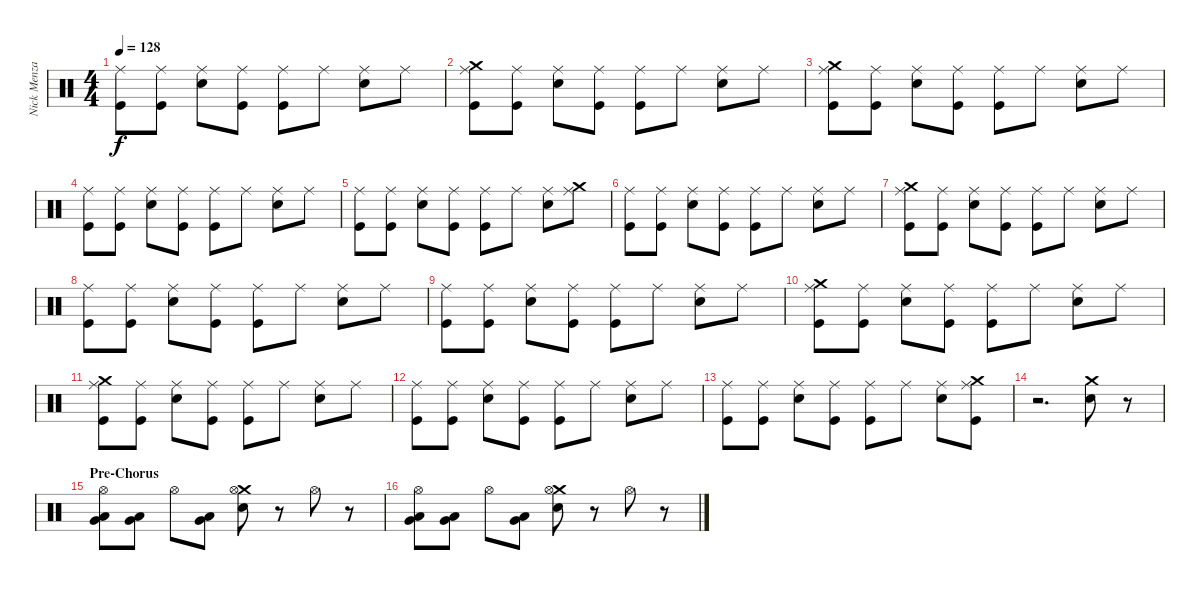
\track ("Nick Menza" "Nick Menza") {instrument percussion}
\staff {score}
\articulation defaults
\ts (4 4)
\tempo 128
\clef neutral
\ks c
("Ride (middle)" "Kick (hit)").8{dy f} ("Ride (middle)" "Kick (hit)").8 ("Ride (middle)" "Electric Snare (hit)").8 ("Ride (middle)" "Kick (hit)").8 ("Kick (hit)" "Ride (middle)").8 "Ride (middle)".8 ("Ride (middle)" "Electric Snare (hit)").8 "Ride (middle)".8 |
("Crash medium (hit)" "Ride (middle)" "Kick (hit)").8 ("Ride (middle)" "Kick (hit)").8 ("Ride (middle)" "Electric Snare (hit)").8 ("Ride (middle)" "Kick (hit)").8 ("Kick (hit)" "Ride (middle)").8 "Ride (middle)".8 ("Ride (middle)" "Electric Snare (hit)").8 "Ride (middle)".8 |
("Crash medium (hit)" "Ride (middle)" "Kick (hit)").8 ("Ride (middle)" "Kick (hit)").8 ("Ride (middle)" "Electric Snare (hit)").8 ("Ride (middle)" "Kick (hit)").8 ("Kick (hit)" "Ride (middle)").8 "Ride (middle)".8 ("Ride (middle)" "Electric Snare (hit)").8 "Ride (middle)".8 |
("Ride (middle)" "Kick (hit)").8 ("Ride (middle)" "Kick (hit)").8 ("Ride (middle)" "Electric Snare (hit)").8 ("Ride (middle)" "Kick (hit)").8 ("Kick (hit)" "Ride (middle)").8 "Ride (middle)".8 ("Ride (middle)" "Electric Snare (hit)").8 "Ride (middle)".8 |
("Ride (middle)" "Kick (hit)").8 ("Ride (middle)" "Kick (hit)").8 ("Ride (middle)" "Electric Snare (hit)").8 ("Ride (middle)" "Kick (hit)").8 ("Kick (hit)" "Ride (middle)").8 "Ride (middle)".8 ("Ride (middle)" "Electric Snare (hit)").8 ("Crash medium (hit)" "Ride (middle)").8 |
("Ride (middle)" "Kick (hit)").8 ("Ride (middle)" "Kick (hit)").8 ("Ride (middle)" "Electric Snare (hit)").8 ("Ride (middle)" "Kick (hit)").8 ("Kick (hit)" "Ride (middle)").8 "Ride (middle)".8 ("Ride (middle)" "Electric Snare (hit)").8 "Ride (middle)".8 |
("Ride (middle)" "Crash medium (hit)" "Kick (hit)").8 ("Ride (middle)" "Kick (hit)").8 ("Ride (middle)" "Electric Snare (hit)").8 ("Ride (middle)" "Kick (hit)").8 ("Kick (hit)" "Ride (middle)").8 "Ride (middle)".8 ("Ride (middle)" "Electric Snare (hit)").8 "Ride (middle)".8 |
("Ride (middle)" "Kick (hit)").8 ("Ride (middle)" "Kick (hit)").8 ("Ride (middle)" "Electric Snare (hit)").8 ("Ride (middle)" "Kick (hit)").8 ("Kick (hit)" "Ride (middle)").8 "Ride (middle)".8 ("Ride (middle)" "Electric Snare (hit)").8 "Ride (middle)".8 |
("Ride (middle)" "Kick (hit)").8 ("Ride (middle)" "Kick (hit)").8 ("Ride (middle)" "Electric Snare (hit)").8 ("Ride (middle)" "Kick (hit)").8 ("Kick (hit)" "Ride (middle)").8 "Ride (middle)".8 ("Ride (middle)" "Electric Snare (hit)").8 "Ride (middle)".8 |
("Crash medium (hit)" "Ride (middle)" "Kick (hit)").8 ("Ride (middle)" "Kick (hit)").8 ("Ride (middle)" "Electric Snare (hit)").8 ("Ride (middle)" "Kick (hit)").8 ("Kick (hit)" "Ride (middle)").8 "Ride (middle)".8 ("Ride (middle)" "Electric Snare (hit)").8 "Ride (middle)".8 |
("Crash medium (hit)" "Ride (middle)" "Kick (hit)").8 ("Ride (middle)" "Kick (hit)").8 ("Ride (middle)" "Electric Snare (hit)").8 ("Ride (middle)" "Kick (hit)").8 ("Kick (hit)" "Ride (middle)").8 "Ride (middle)".8 ("Ride (middle)" "Electric Snare (hit)").8 "Ride (middle)".8 |
("Ride (middle)" "Kick (hit)").8 ("Ride (middle)" "Kick (hit)").8 ("Ride (middle)" "Electric Snare (hit)").8 ("Ride (middle)" "Kick (hit)").8 ("Kick (hit)" "Ride (middle)").8 "Ride (middle)".8 ("Ride (middle)" "Electric Snare (hit)").8 "Ride (middle)".8 |
("Ride (middle)" "Kick (hit)").8 ("Ride (middle)" "Kick (hit)").8 ("Ride (middle)" "Electric Snare (hit)").8 ("Ride (middle)" "Kick (hit)").8 ("Kick (hit)" "Ride (middle)").8 "Ride (middle)".8 ("Ride (middle)" "Electric Snare (hit)").8 ("Kick (hit)" "Crash medium (hit)" "Ride (middle)").8 |
r.2{d} ("Electric Snare (hit)" "Crash medium (hit)").8 r.8 |
\section ("" "Pre-Chorus")
("Low Tom (hit)" "Very Low Tom (hit)" "Hi-Hat (open)").8 ("Very Low Tom (hit)" "Low Tom (hit)").8 "Hi-Hat (open)".8 ("Low Tom (hit)" "Very Low Tom (hit)").8 ("Electric Snare (hit)" "Crash medium (hit)" "Hi-Hat (open)").8 r.8 "Hi-Hat (open)".8 r.8 |
("Low Tom (hit)" "Very Low Tom (hit)" "Hi-Hat (open)").8 ("Very Low Tom (hit)" "Low Tom (hit)").8 "Hi-Hat (open)".8 ("Low Tom (hit)" "Very Low Tom (hit)").8 ("Electric Snare (hit)" "Crash medium (hit)" "Hi-Hat (open)").8 r.8 "Hi-Hat (open)".8 r.8
